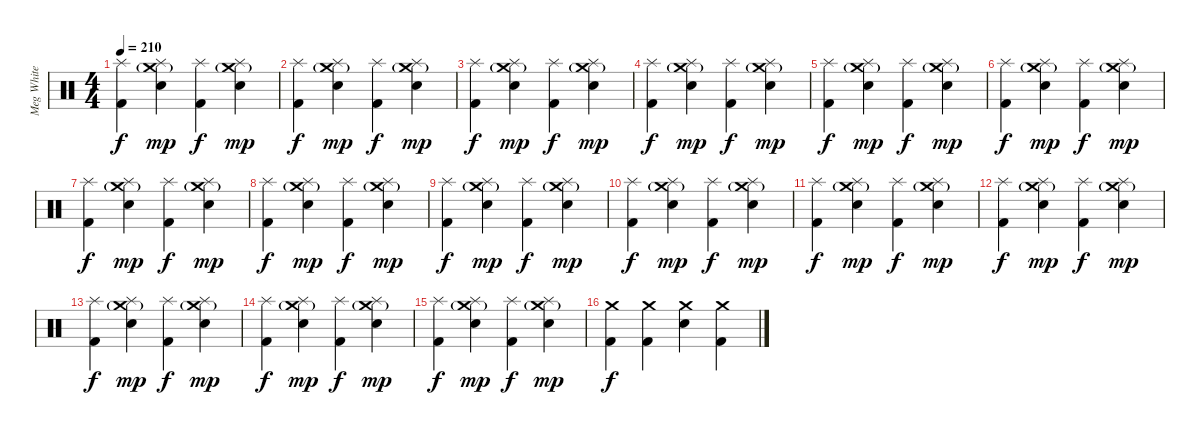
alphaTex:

\track ("Meg White (Drums)" "Meg White ") {instrument percussion}
\staff {score}
\articulation defaults
\ts (4 4)
\tempo 210
\clef neutral
\ks c
("Kick (hit) 2" "Splash (hit)").4{dy f} ("Electric Snare (hit)" "Splash (hit)" "Crash medium (hit)"{g}).4{dy mp} ("Kick (hit) 2" "Splash (hit)").4{dy f} ("Electric Snare (hit)" "Splash (hit)" "Crash medium (hit)"{g}).4{dy mp} |
("Kick (hit) 2" "Splash (hit)").4{dy f} ("Electric Snare (hit)" "Splash (hit)" "Crash medium (hit)"{g}).4{dy mp} ("Kick (hit) 2" "Splash (hit)").4{dy f} ("Electric Snare (hit)" "Splash (hit)" "Crash medium (hit)"{g}).4{dy mp} |
("Kick (hit) 2" "Splash (hit)").4{dy f} ("Electric Snare (hit)" "Splash (hit)" "Crash medium (hit)"{g}).4{dy mp} ("Kick (hit) 2" "Splash (hit)").4{dy f} ("Electric Snare (hit)" "Splash (hit)" "Crash medium (hit)"{g}).4{dy mp} |
("Kick (hit) 2" "Splash (hit)").4{dy f} ("Electric Snare (hit)" "Splash (hit)" "Crash medium (hit)"{g}).4{dy mp} ("Kick (hit) 2" "Splash (hit)").4{dy f} ("Electric Snare (hit)" "Splash (hit)" "Crash medium (hit)"{g}).4{dy mp} |
("Kick (hit) 2" "Splash (hit)").4{dy f} ("Electric Snare (hit)" "Splash (hit)" "Crash medium (hit)"{g}).4{dy mp} ("Kick (hit) 2" "Splash (hit)").4{dy f} ("Electric Snare (hit)" "Splash (hit)" "Crash medium (hit)"{g}).4{dy mp} |
("Kick (hit) 2" "Splash (hit)").4{dy f} ("Electric Snare (hit)" "Splash (hit)" "Crash medium (hit)"{g}).4{dy mp} ("Kick (hit) 2" "Splash (hit)").4{dy f} ("Electric Snare (hit)" "Splash (hit)" "Crash medium (hit)"{g}).4{dy mp} |
("Kick (hit) 2" "Splash (hit)").4{dy f} ("Electric Snare (hit)" "Splash (hit)" "Crash medium (hit)"{g}).4{dy mp} ("Kick (hit) 2" "Splash (hit)").4{dy f} ("Electric Snare (hit)" "Splash (hit)" "Crash medium (hit)"{g}).4{dy mp} |
("Kick (hit) 2" "Splash (hit)").4{dy f} ("Electric Snare (hit)" "Splash (hit)" "Crash medium (hit)"{g}).4{dy mp} ("Kick (hit) 2" "Splash (hit)").4{dy f} ("Electric Snare (hit)" "Splash (hit)" "Crash medium (hit)"{g}).4{dy mp} |
("Kick (hit) 2" "Splash (hit)").4{dy f} ("Electric Snare (hit)" "Splash (hit)" "Crash medium (hit)"{g}).4{dy mp} ("Kick (hit) 2" "Splash (hit)").4{dy f} ("Electric Snare (hit)" "Splash (hit)" "Crash medium (hit)"{g}).4{dy mp} |
("Kick (hit) 2" "Splash (hit)").4{dy f} ("Electric Snare (hit)" "Splash (hit)" "Crash medium (hit)"{g}).4{dy mp} ("Kick (hit) 2" "Splash (hit)").4{dy f} ("Electric Snare (hit)" "Splash (hit)" "Crash medium (hit)"{g}).4{dy mp} |
("Kick (hit) 2" "Splash (hit)").4{dy f} ("Electric Snare (hit)" "Splash (hit)" "Crash medium (hit)"{g}).4{dy mp} ("Kick (hit) 2" "Splash (hit)").4{dy f} ("Electric Snare (hit)" "Splash (hit)" "Crash medium (hit)"{g}).4{dy mp} |
("Kick (hit) 2" "Splash (hit)").4{dy f} ("Electric Snare (hit)" "Splash (hit)" "Crash medium (hit)"{g}).4{dy mp} ("Kick (hit) 2" "Splash (hit)").4{dy f} ("Electric Snare (hit)" "Splash (hit)" "Crash medium (hit)"{g}).4{dy mp} |
("Kick (hit) 2" "Splash (hit)").4{dy f} ("Electric Snare (hit)" "Splash (hit)" "Crash medium (hit)"{g}).4{dy mp} ("Kick (hit) 2" "Splash (hit)").4{dy f} ("Electric Snare (hit)" "Splash (hit)" "Crash medium (hit)"{g}).4{dy mp} |
("Kick (hit) 2" "Splash (hit)").4{dy f} ("Electric Snare (hit)" "Splash (hit)" "Crash medium (hit)"{g}).4{dy mp} ("Kick (hit) 2" "Splash (hit)").4{dy f} ("Electric Snare (hit)" "Splash (hit)" "Crash medium (hit)"{g}).4{dy mp} |
("Kick (hit) 2" "Splash (hit)").4{dy f} ("Electric Snare (hit)" "Splash (hit)" "Crash medium (hit)"{g}).4{dy mp} ("Kick (hit) 2" "Splash (hit)").4{dy f} ("Electric Snare (hit)" "Splash (hit)" "Crash medium (hit)"{g}).4{dy mp} |
("Kick (hit) 2" "Crash medium (hit)").4{dy f} ("Kick (hit) 2" "Crash medium (hit)").4 ("Electric Snare (hit)" "Crash medium (hit)").4 ("Kick (hit) 2" "Crash medium (hit)").4
